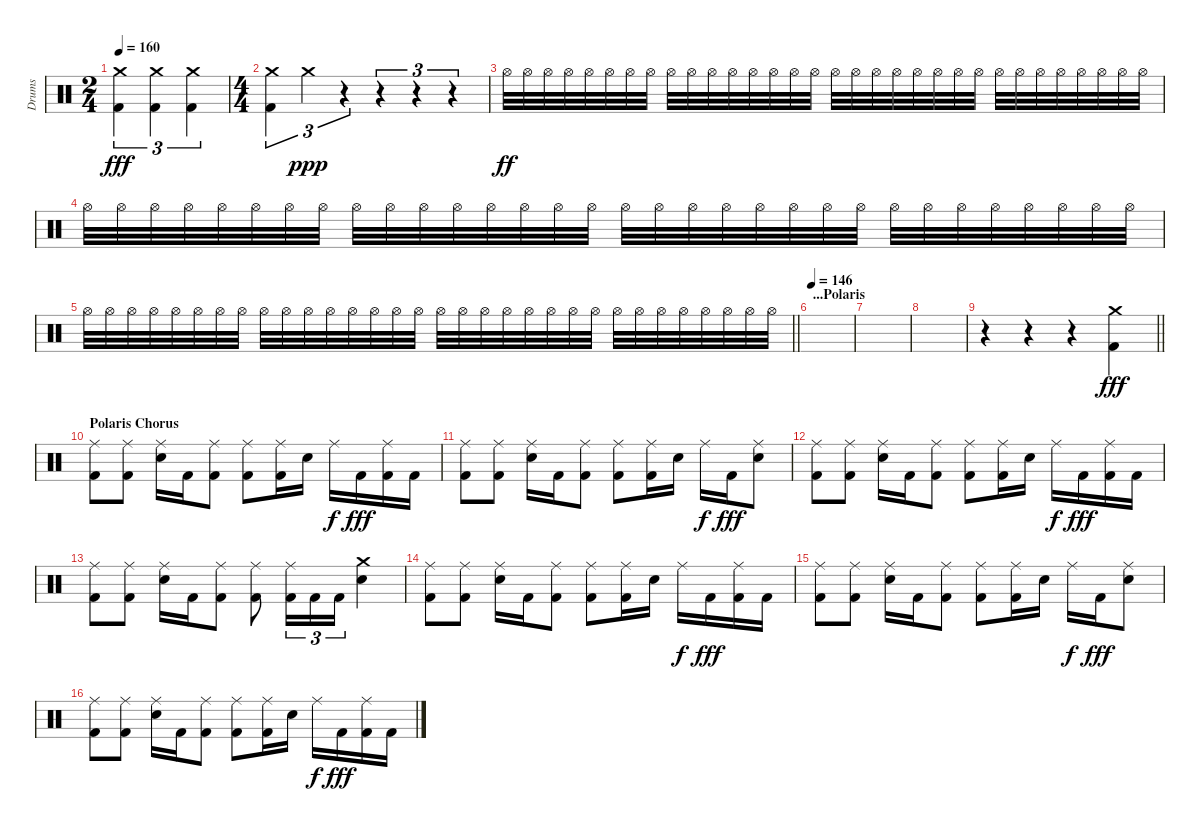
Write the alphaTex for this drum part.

\track ("Drums" "Drums") {instrument percussion}
\staff {score}
\articulation defaults
\ts (2 4)
\tempo 160
\clef neutral
\ks c
("Crash medium (hit)" "Kick (hit) 2").4{tu (3 2) dy fff} ("Crash medium (hit)" "Kick (hit) 2").4{tu (3 2)} ("Crash medium (hit)" "Kick (hit) 2").4{tu (3 2)} |
\ts (4 4)
("Crash medium (hit)" "Kick (hit) 2").4{tu (3 2)} "Crash medium (hit)".4{tu (3 2) dy ppp volume 0} r.4{tu (3 2)} r.4{tu (3 2)} r.4{tu (3 2)} r.4{tu (3 2)} |
"Hi-Hat (open)".32{dy ff volume 4} "Hi-Hat (open)".32 "Hi-Hat (open)".32 "Hi-Hat (open)".32 "Hi-Hat (open)".32 "Hi-Hat (open)".32 "Hi-Hat (open)".32 "Hi-Hat (open)".32 "Hi-Hat (open)".32 "Hi-Hat (open)".32 "Hi-Hat (open)".32 "Hi-Hat (open)".32 "Hi-Hat (open)".32 "Hi-Hat (open)".32 "Hi-Hat (open)".32 "Hi-Hat (open)".32 "Hi-Hat (open)".32 "Hi-Hat (open)".32 "Hi-Hat (open)".32 "Hi-Hat (open)".32 "Hi-Hat (open)".32 "Hi-Hat (open)".32 "Hi-Hat (open)".32 "Hi-Hat (open)".32 "Hi-Hat (open)".32 "Hi-Hat (open)".32 "Hi-Hat (open)".32 "Hi-Hat (open)".32 "Hi-Hat (open)".32 "Hi-Hat (open)".32 "Hi-Hat (open)".32 "Hi-Hat (open)".32 |
"Hi-Hat (open)".32{volume 7} "Hi-Hat (open)".32 "Hi-Hat (open)".32 "Hi-Hat (open)".32 "Hi-Hat (open)".32 "Hi-Hat (open)".32 "Hi-Hat (open)".32 "Hi-Hat (open)".32 "Hi-Hat (open)".32 "Hi-Hat (open)".32 "Hi-Hat (open)".32 "Hi-Hat (open)".32 "Hi-Hat (open)".32 "Hi-Hat (open)".32 "Hi-Hat (open)".32 "Hi-Hat (open)".32 "Hi-Hat (open)".32 "Hi-Hat (open)".32 "Hi-Hat (open)".32 "Hi-Hat (open)".32 "Hi-Hat (open)".32 "Hi-Hat (open)".32 "Hi-Hat (open)".32 "Hi-Hat (open)".32 "Hi-Hat (open)".32 "Hi-Hat (open)".32 "Hi-Hat (open)".32 "Hi-Hat (open)".32 "Hi-Hat (open)".32 "Hi-Hat (open)".32 "Hi-Hat (open)".32 "Hi-Hat (open)".32 |
\barLineRight lightlight "Hi-Hat (open)".32{volume 13} "Hi-Hat (open)".32 "Hi-Hat (open)".32 "Hi-Hat (open)".32 "Hi-Hat (open)".32 "Hi-Hat (open)".32 "Hi-Hat (open)".32 "Hi-Hat (open)".32 "Hi-Hat (open)".32 "Hi-Hat (open)".32 "Hi-Hat (open)".32 "Hi-Hat (open)".32 "Hi-Hat (open)".32 "Hi-Hat (open)".32 "Hi-Hat (open)".32 "Hi-Hat (open)".32 "Hi-Hat (open)".32 "Hi-Hat (open)".32 "Hi-Hat (open)".32 "Hi-Hat (open)".32 "Hi-Hat (open)".32 "Hi-Hat (open)".32 "Hi-Hat (open)".32 "Hi-Hat (open)".32 "Hi-Hat (open)".32 "Hi-Hat (open)".32 "Hi-Hat (open)".32 "Hi-Hat (open)".32 "Hi-Hat (open)".32 "Hi-Hat (open)".32 "Hi-Hat (open)".32 "Hi-Hat (open)".32
|
\section ("" "...Polaris")
\tempo 146
|
|
|
\barLineRight lightlight
r.4 r.4 r.4 ("Crash medium (hit)" "Kick (hit) 2").4{dy fff} |
\section ("" "Polaris Chorus")
("Ride (middle)" "Kick (hit) 2").8 ("Ride (middle)" "Kick (hit) 2").8 ("Ride (middle)" "Snare (hit) 2").16 "Kick (hit) 2".16 ("Ride (middle)" "Kick (hit) 2").8 ("Ride (middle)" "Kick (hit) 2").8 ("Ride (middle)" "Kick (hit) 2").16 "Snare (hit) 2".16 "Ride (middle)".16{dy f} "Kick (hit) 2".16{dy fff} ("Ride (middle)" "Kick (hit) 2").16 "Kick (hit) 2".16 |
("Ride (middle)" "Kick (hit) 2").8 ("Ride (middle)" "Kick (hit) 2").8 ("Ride (middle)" "Snare (hit) 2").16 "Kick (hit) 2".16 ("Ride (middle)" "Kick (hit) 2").8 ("Ride (middle)" "Kick (hit) 2").8 ("Ride (middle)" "Kick (hit) 2").16 "Snare (hit) 2".16 "Ride (middle)".16{dy f} "Kick (hit) 2".16{dy fff} ("Ride (middle)" "Snare (hit) 2").8 |
("Ride (middle)" "Kick (hit) 2").8 ("Ride (middle)" "Kick (hit) 2").8 ("Ride (middle)" "Snare (hit) 2").16 "Kick (hit) 2".16 ("Ride (middle)" "Kick (hit) 2").8 ("Ride (middle)" "Kick (hit) 2").8 ("Ride (middle)" "Kick (hit) 2").16 "Snare (hit) 2".16 "Ride (middle)".16{dy f} "Kick (hit) 2".16{dy fff} ("Ride (middle)" "Kick (hit) 2").16 "Kick (hit) 2".16 |
("Ride (middle)" "Kick (hit) 2").8 ("Ride (middle)" "Kick (hit) 2").8 ("Ride (middle)" "Snare (hit) 2").16 "Kick (hit) 2".16 ("Ride (middle)" "Kick (hit) 2").8 ("Ride (middle)" "Kick (hit) 2").8 ("Ride (middle)" "Kick (hit) 2").16{tu (3 2)} "Kick (hit) 2".16{tu (3 2)} "Kick (hit) 2".16{tu (3 2)} ("Crash medium (hit)" "Snare (hit) 2").4 |
("Ride (middle)" "Kick (hit) 2").8 ("Ride (middle)" "Kick (hit) 2").8 ("Ride (middle)" "Snare (hit) 2").16 "Kick (hit) 2".16 ("Ride (middle)" "Kick (hit) 2").8 ("Ride (middle)" "Kick (hit) 2").8 ("Ride (middle)" "Kick (hit) 2").16 "Snare (hit) 2".16 "Ride (middle)".16{dy f} "Kick (hit) 2".16{dy fff} ("Ride (middle)" "Kick (hit) 2").16 "Kick (hit) 2".16 |
("Ride (middle)" "Kick (hit) 2").8 ("Ride (middle)" "Kick (hit) 2").8 ("Ride (middle)" "Snare (hit) 2").16 "Kick (hit) 2".16 ("Ride (middle)" "Kick (hit) 2").8 ("Ride (middle)" "Kick (hit) 2").8 ("Ride (middle)" "Kick (hit) 2").16 "Snare (hit) 2".16 "Ride (middle)".16{dy f} "Kick (hit) 2".16{dy fff} ("Ride (middle)" "Snare (hit) 2").8 |
("Ride (middle)" "Kick (hit) 2").8 ("Ride (middle)" "Kick (hit) 2").8 ("Ride (middle)" "Snare (hit) 2").16 "Kick (hit) 2".16 ("Ride (middle)" "Kick (hit) 2").8 ("Ride (middle)" "Kick (hit) 2").8 ("Ride (middle)" "Kick (hit) 2").16 "Snare (hit) 2".16 "Ride (middle)".16{dy f} "Kick (hit) 2".16{dy fff} ("Ride (middle)" "Kick (hit) 2").16 "Kick (hit) 2".16
